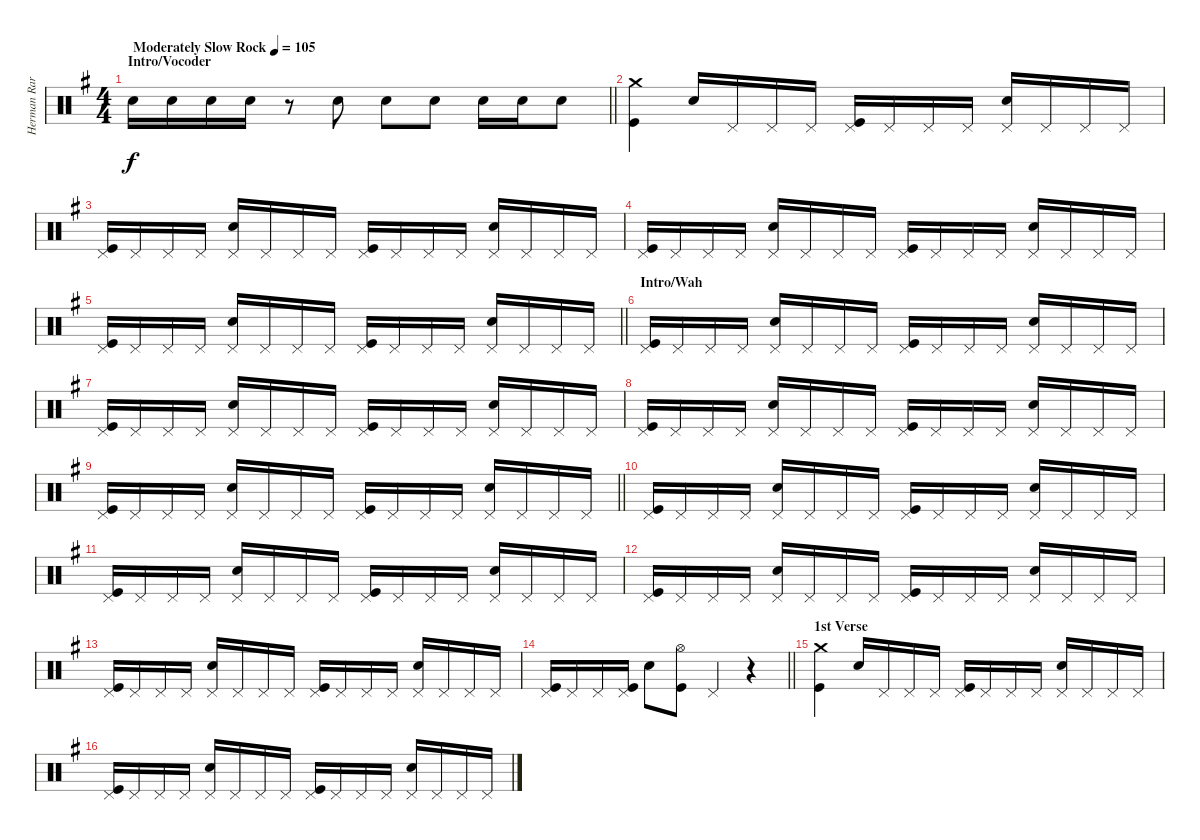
\track ("Herman Rarebell" "Herman Rar") {instrument percussion}
\staff {score}
\articulation defaults
\ts (4 4)
\section ("" "Intro/Vocoder")
\tempo (105 "Moderately Slow Rock")
\clef neutral
\barLineRight lightlight
\ks g "Snare (hit) 2".16{dy f} "Snare (hit) 2".16 "Snare (hit) 2".16 "Snare (hit) 2".16
r.8 "Snare (hit) 2".8 "Snare (hit) 2".8 "Snare (hit) 2".8 "Snare (hit) 2".16 "Snare (hit) 2".16 "Snare (hit) 2".8 |
("Crash medium (hit)" "Kick (hit)").4 "Snare (hit) 2".16 "Pedal Hi-Hat (hit)".16 "Pedal Hi-Hat (hit)".16 "Pedal Hi-Hat (hit)".16 ("Pedal Hi-Hat (hit)" "Kick (hit)").16 "Pedal Hi-Hat (hit)".16 "Pedal Hi-Hat (hit)".16 "Pedal Hi-Hat (hit)".16 ("Pedal Hi-Hat (hit)" "Snare (hit) 2").16 "Pedal Hi-Hat (hit)".16 "Pedal Hi-Hat (hit)".16 "Pedal Hi-Hat (hit)".16 |
("Pedal Hi-Hat (hit)" "Kick (hit)").16 "Pedal Hi-Hat (hit)".16 "Pedal Hi-Hat (hit)".16 "Pedal Hi-Hat (hit)".16 ("Pedal Hi-Hat (hit)" "Snare (hit) 2").16 "Pedal Hi-Hat (hit)".16 "Pedal Hi-Hat (hit)".16 "Pedal Hi-Hat (hit)".16 ("Pedal Hi-Hat (hit)" "Kick (hit)").16 "Pedal Hi-Hat (hit)".16 "Pedal Hi-Hat (hit)".16 "Pedal Hi-Hat (hit)".16 ("Pedal Hi-Hat (hit)" "Snare (hit) 2").16 "Pedal Hi-Hat (hit)".16 "Pedal Hi-Hat (hit)".16 "Pedal Hi-Hat (hit)".16 |
("Pedal Hi-Hat (hit)" "Kick (hit)").16 "Pedal Hi-Hat (hit)".16 "Pedal Hi-Hat (hit)".16 "Pedal Hi-Hat (hit)".16 ("Pedal Hi-Hat (hit)" "Snare (hit) 2").16 "Pedal Hi-Hat (hit)".16 "Pedal Hi-Hat (hit)".16 "Pedal Hi-Hat (hit)".16 ("Pedal Hi-Hat (hit)" "Kick (hit)").16 "Pedal Hi-Hat (hit)".16 "Pedal Hi-Hat (hit)".16 "Pedal Hi-Hat (hit)".16 ("Pedal Hi-Hat (hit)" "Snare (hit) 2").16 "Pedal Hi-Hat (hit)".16 "Pedal Hi-Hat (hit)".16 "Pedal Hi-Hat (hit)".16 |
\barLineRight lightlight
("Pedal Hi-Hat (hit)" "Kick (hit)").16 "Pedal Hi-Hat (hit)".16 "Pedal Hi-Hat (hit)".16 "Pedal Hi-Hat (hit)".16 ("Pedal Hi-Hat (hit)" "Snare (hit) 2").16 "Pedal Hi-Hat (hit)".16 "Pedal Hi-Hat (hit)".16 "Pedal Hi-Hat (hit)".16 ("Pedal Hi-Hat (hit)" "Kick (hit)").16 "Pedal Hi-Hat (hit)".16 "Pedal Hi-Hat (hit)".16 "Pedal Hi-Hat (hit)".16 ("Pedal Hi-Hat (hit)" "Snare (hit) 2").16 "Pedal Hi-Hat (hit)".16 "Pedal Hi-Hat (hit)".16 "Pedal Hi-Hat (hit)".16 |
\section ("" "Intro/Wah")
("Pedal Hi-Hat (hit)" "Kick (hit)").16 "Pedal Hi-Hat (hit)".16 "Pedal Hi-Hat (hit)".16 "Pedal Hi-Hat (hit)".16 ("Pedal Hi-Hat (hit)" "Snare (hit) 2").16 "Pedal Hi-Hat (hit)".16 "Pedal Hi-Hat (hit)".16 "Pedal Hi-Hat (hit)".16 ("Pedal Hi-Hat (hit)" "Kick (hit)").16 "Pedal Hi-Hat (hit)".16 "Pedal Hi-Hat (hit)".16 "Pedal Hi-Hat (hit)".16 ("Pedal Hi-Hat (hit)" "Snare (hit) 2").16 "Pedal Hi-Hat (hit)".16 "Pedal Hi-Hat (hit)".16 "Pedal Hi-Hat (hit)".16 |
("Pedal Hi-Hat (hit)" "Kick (hit)").16 "Pedal Hi-Hat (hit)".16 "Pedal Hi-Hat (hit)".16 "Pedal Hi-Hat (hit)".16 ("Pedal Hi-Hat (hit)" "Snare (hit) 2").16 "Pedal Hi-Hat (hit)".16 "Pedal Hi-Hat (hit)".16 "Pedal Hi-Hat (hit)".16 ("Pedal Hi-Hat (hit)" "Kick (hit)").16 "Pedal Hi-Hat (hit)".16 "Pedal Hi-Hat (hit)".16 "Pedal Hi-Hat (hit)".16 ("Pedal Hi-Hat (hit)" "Snare (hit) 2").16 "Pedal Hi-Hat (hit)".16 "Pedal Hi-Hat (hit)".16 "Pedal Hi-Hat (hit)".16 |
("Pedal Hi-Hat (hit)" "Kick (hit)").16 "Pedal Hi-Hat (hit)".16 "Pedal Hi-Hat (hit)".16 "Pedal Hi-Hat (hit)".16 ("Pedal Hi-Hat (hit)" "Snare (hit) 2").16 "Pedal Hi-Hat (hit)".16 "Pedal Hi-Hat (hit)".16 "Pedal Hi-Hat (hit)".16 ("Pedal Hi-Hat (hit)" "Kick (hit)").16 "Pedal Hi-Hat (hit)".16 "Pedal Hi-Hat (hit)".16 "Pedal Hi-Hat (hit)".16 ("Pedal Hi-Hat (hit)" "Snare (hit) 2").16 "Pedal Hi-Hat (hit)".16 "Pedal Hi-Hat (hit)".16 "Pedal Hi-Hat (hit)".16 |
\barLineRight lightlight
("Pedal Hi-Hat (hit)" "Kick (hit)").16 "Pedal Hi-Hat (hit)".16 "Pedal Hi-Hat (hit)".16 "Pedal Hi-Hat (hit)".16 ("Pedal Hi-Hat (hit)" "Snare (hit) 2").16 "Pedal Hi-Hat (hit)".16 "Pedal Hi-Hat (hit)".16 "Pedal Hi-Hat (hit)".16 ("Pedal Hi-Hat (hit)" "Kick (hit)").16 "Pedal Hi-Hat (hit)".16 "Pedal Hi-Hat (hit)".16 "Pedal Hi-Hat (hit)".16 ("Pedal Hi-Hat (hit)" "Snare (hit) 2").16 "Pedal Hi-Hat (hit)".16 "Pedal Hi-Hat (hit)".16 "Pedal Hi-Hat (hit)".16 |
("Pedal Hi-Hat (hit)" "Kick (hit)").16 "Pedal Hi-Hat (hit)".16 "Pedal Hi-Hat (hit)".16 "Pedal Hi-Hat (hit)".16 ("Pedal Hi-Hat (hit)" "Snare (hit) 2").16 "Pedal Hi-Hat (hit)".16 "Pedal Hi-Hat (hit)".16 "Pedal Hi-Hat (hit)".16 ("Pedal Hi-Hat (hit)" "Kick (hit)").16 "Pedal Hi-Hat (hit)".16 "Pedal Hi-Hat (hit)".16 "Pedal Hi-Hat (hit)".16 ("Pedal Hi-Hat (hit)" "Snare (hit) 2").16 "Pedal Hi-Hat (hit)".16 "Pedal Hi-Hat (hit)".16 "Pedal Hi-Hat (hit)".16 |
("Pedal Hi-Hat (hit)" "Kick (hit)").16 "Pedal Hi-Hat (hit)".16 "Pedal Hi-Hat (hit)".16 "Pedal Hi-Hat (hit)".16 ("Pedal Hi-Hat (hit)" "Snare (hit) 2").16 "Pedal Hi-Hat (hit)".16 "Pedal Hi-Hat (hit)".16 "Pedal Hi-Hat (hit)".16 ("Pedal Hi-Hat (hit)" "Kick (hit)").16 "Pedal Hi-Hat (hit)".16 "Pedal Hi-Hat (hit)".16 "Pedal Hi-Hat (hit)".16 ("Pedal Hi-Hat (hit)" "Snare (hit) 2").16 "Pedal Hi-Hat (hit)".16 "Pedal Hi-Hat (hit)".16 "Pedal Hi-Hat (hit)".16 |
("Pedal Hi-Hat (hit)" "Kick (hit)").16 "Pedal Hi-Hat (hit)".16 "Pedal Hi-Hat (hit)".16 "Pedal Hi-Hat (hit)".16 ("Pedal Hi-Hat (hit)" "Snare (hit) 2").16 "Pedal Hi-Hat (hit)".16 "Pedal Hi-Hat (hit)".16 "Pedal Hi-Hat (hit)".16 ("Pedal Hi-Hat (hit)" "Kick (hit)").16 "Pedal Hi-Hat (hit)".16 "Pedal Hi-Hat (hit)".16 "Pedal Hi-Hat (hit)".16 ("Pedal Hi-Hat (hit)" "Snare (hit) 2").16 "Pedal Hi-Hat (hit)".16 "Pedal Hi-Hat (hit)".16 "Pedal Hi-Hat (hit)".16 |
("Pedal Hi-Hat (hit)" "Kick (hit)").16 "Pedal Hi-Hat (hit)".16 "Pedal Hi-Hat (hit)".16 "Pedal Hi-Hat (hit)".16 ("Pedal Hi-Hat (hit)" "Snare (hit) 2").16 "Pedal Hi-Hat (hit)".16 "Pedal Hi-Hat (hit)".16 "Pedal Hi-Hat (hit)".16 ("Pedal Hi-Hat (hit)" "Kick (hit)").16 "Pedal Hi-Hat (hit)".16 "Pedal Hi-Hat (hit)".16 "Pedal Hi-Hat (hit)".16 ("Pedal Hi-Hat (hit)" "Snare (hit) 2").16 "Pedal Hi-Hat (hit)".16 "Pedal Hi-Hat (hit)".16 "Pedal Hi-Hat (hit)".16 |
\barLineRight lightlight
("Pedal Hi-Hat (hit)" "Kick (hit)").16 "Pedal Hi-Hat (hit)".16 "Pedal Hi-Hat (hit)".16 ("Pedal Hi-Hat (hit)" "Kick (hit)").16 "Snare (hit) 2".8 ("Hi-Hat (open)" "Kick (hit)").8 "Pedal Hi-Hat (hit)".4 r.4 |
\section ("" "1st Verse")
("Crash medium (hit)" "Kick (hit)").4 "Snare (hit) 2".16 "Pedal Hi-Hat (hit)".16 "Pedal Hi-Hat (hit)".16 "Pedal Hi-Hat (hit)".16 ("Pedal Hi-Hat (hit)" "Kick (hit)").16 "Pedal Hi-Hat (hit)".16 "Pedal Hi-Hat (hit)".16 "Pedal Hi-Hat (hit)".16 ("Pedal Hi-Hat (hit)" "Snare (hit) 2").16 "Pedal Hi-Hat (hit)".16 "Pedal Hi-Hat (hit)".16 "Pedal Hi-Hat (hit)".16 |
("Pedal Hi-Hat (hit)" "Kick (hit)").16 "Pedal Hi-Hat (hit)".16 "Pedal Hi-Hat (hit)".16 "Pedal Hi-Hat (hit)".16 ("Pedal Hi-Hat (hit)" "Snare (hit) 2").16 "Pedal Hi-Hat (hit)".16 "Pedal Hi-Hat (hit)".16 "Pedal Hi-Hat (hit)".16 ("Pedal Hi-Hat (hit)" "Kick (hit)").16 "Pedal Hi-Hat (hit)".16 "Pedal Hi-Hat (hit)".16 "Pedal Hi-Hat (hit)".16 ("Pedal Hi-Hat (hit)" "Snare (hit) 2").16 "Pedal Hi-Hat (hit)".16 "Pedal Hi-Hat (hit)".16 "Pedal Hi-Hat (hit)".16
